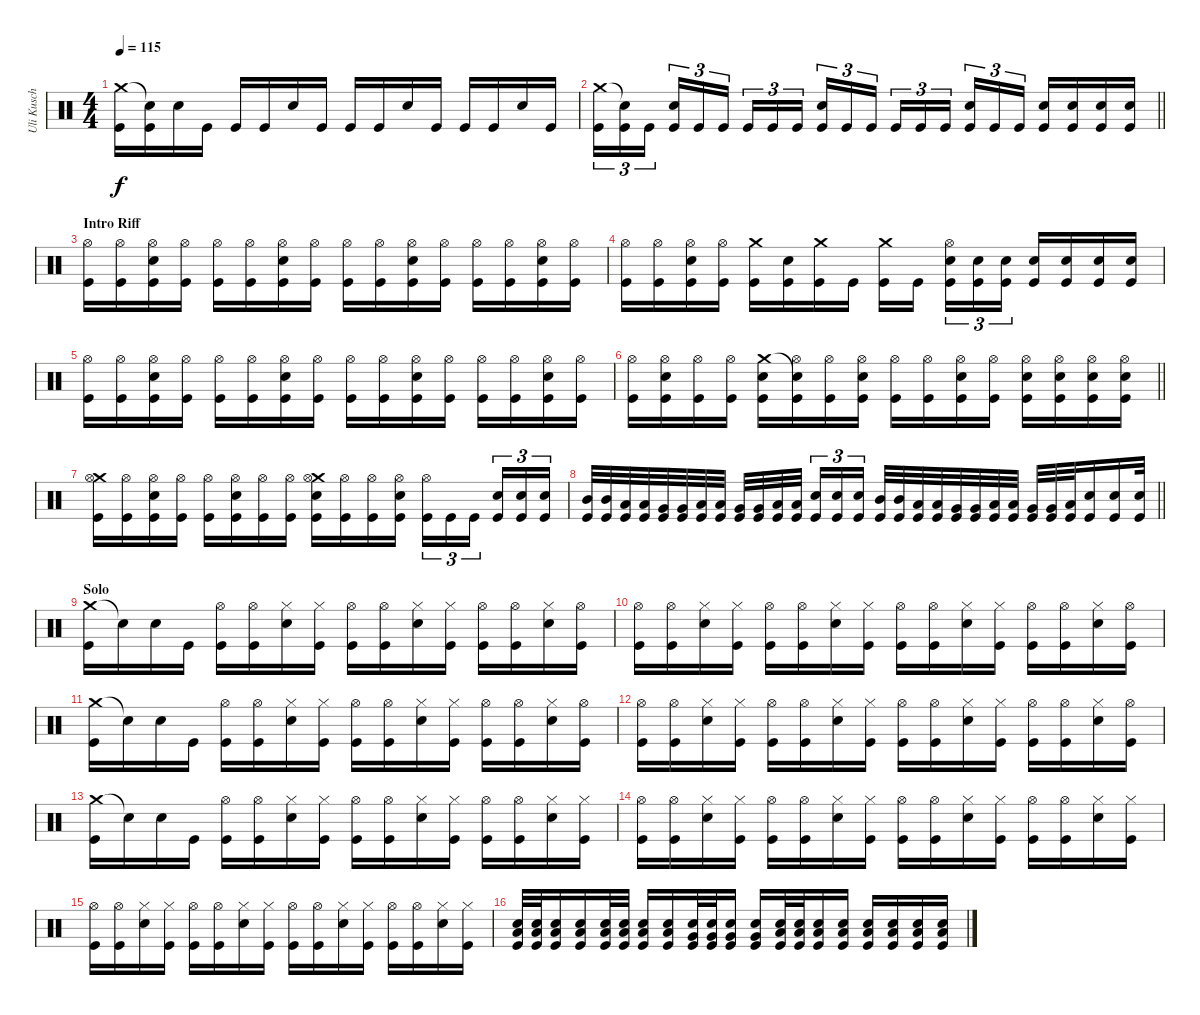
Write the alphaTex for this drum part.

\track ("Uli Kusch (Drums)" "Uli Kusch ") {instrument percussion}
\staff {score}
\articulation defaults
\ts (4 4)
\tempo 115
\clef neutral
\ks c
("Crash medium (hit)" "Kick (hit)").16{dy f} ("Snare (hit)"{t} "Kick (hit)").16 "Snare (hit) 2".16 "Kick (hit)".16 "Kick (hit)".16 "Kick (hit)".16 "Snare (hit) 2".16 "Kick (hit)".16 "Kick (hit)".16 "Kick (hit)".16 "Snare (hit) 2".16 "Kick (hit)".16 "Kick (hit)".16 "Kick (hit)".16 "Snare (hit) 2".16 "Kick (hit)".16 |
\barLineRight lightlight
("Crash medium (hit)" "Kick (hit)").16{tu (3 2)} ("Snare (hit)"{t} "Kick (hit)").16{tu (3 2)} "Kick (hit)".16{tu (3 2) beam splitsecondary} ("Snare (hit) 2" "Kick (hit)").16{tu (3 2)} "Kick (hit)".16{tu (3 2)} "Kick (hit)".16{tu (3 2)} "Kick (hit)".16{tu (3 2)} "Kick (hit)".16{tu (3 2)} "Kick (hit)".16{tu (3 2) beam splitsecondary} ("Snare (hit) 2" "Kick (hit)").16{tu (3 2)} "Kick (hit)".16{tu (3 2)} "Kick (hit)".16{tu (3 2)} "Kick (hit)".16{tu (3 2)} "Kick (hit)".16{tu (3 2)} "Kick (hit)".16{tu (3 2) beam splitsecondary} ("Snare (hit) 2" "Kick (hit)").16{tu (3 2)} "Kick (hit)".16{tu (3 2)} "Kick (hit)".16{tu (3 2)} ("Snare (hit) 2" "Kick (hit)").16 ("Snare (hit) 2" "Kick (hit)").16 ("Snare (hit) 2" "Kick (hit)").16 ("Snare (hit) 2" "Kick (hit)").16 |
\section ("" "Intro Riff")
("Hi-Hat (open)" "Kick (hit)").16 ("Hi-Hat (open)" "Kick (hit)").16 ("Hi-Hat (open)" "Snare (hit) 2" "Kick (hit)").16 ("Hi-Hat (open)" "Kick (hit)").16 ("Hi-Hat (open)" "Kick (hit)").16 ("Hi-Hat (open)" "Kick (hit)").16 ("Hi-Hat (open)" "Snare (hit) 2" "Kick (hit)").16 ("Hi-Hat (open)" "Kick (hit)").16 ("Hi-Hat (open)" "Kick (hit)").16 ("Hi-Hat (open)" "Kick (hit)").16 ("Hi-Hat (open)" "Snare (hit) 2" "Kick (hit)").16 ("Hi-Hat (open)" "Kick (hit)").16 ("Hi-Hat (open)" "Kick (hit)").16 ("Hi-Hat (open)" "Kick (hit)").16 ("Hi-Hat (open)" "Snare (hit) 2" "Kick (hit)").16 ("Hi-Hat (open)" "Kick (hit)").16 |
("Hi-Hat (open)" "Kick (hit)").16 ("Hi-Hat (open)" "Kick (hit)").16 ("Hi-Hat (open)" "Snare (hit) 2" "Kick (hit)").16 ("Hi-Hat (open)" "Kick (hit)").16 ("Crash medium (hit)" "Kick (hit)").16 ("Snare (hit) 2" "Kick (hit)").16 ("Crash medium (hit)" "Kick (hit)").16 "Kick (hit)".16 ("Crash medium (hit)" "Kick (hit)").16 "Kick (hit)".16{beam splitsecondary} ("Hi-Hat (open)" "Snare (hit) 2" "Kick (hit)").16{tu (3 2)} ("Snare (hit) 2" "Kick (hit)").16{tu (3 2)} ("Snare (hit) 2" "Kick (hit)").16{tu (3 2)} ("Snare (hit) 2" "Kick (hit)").16 ("Snare (hit) 2" "Kick (hit)").16 ("Snare (hit) 2" "Kick (hit)").16 ("Snare (hit) 2" "Kick (hit)").16 |
("Hi-Hat (open)" "Kick (hit)").16 ("Hi-Hat (open)" "Kick (hit)").16 ("Hi-Hat (open)" "Snare (hit) 2" "Kick (hit)").16 ("Hi-Hat (open)" "Kick (hit)").16 ("Hi-Hat (open)" "Kick (hit)").16 ("Hi-Hat (open)" "Kick (hit)").16 ("Hi-Hat (open)" "Snare (hit) 2" "Kick (hit)").16 ("Hi-Hat (open)" "Kick (hit)").16 ("Hi-Hat (open)" "Kick (hit)").16 ("Hi-Hat (open)" "Kick (hit)").16 ("Hi-Hat (open)" "Snare (hit) 2" "Kick (hit)").16 ("Hi-Hat (open)" "Kick (hit)").16 ("Hi-Hat (open)" "Kick (hit)").16 ("Hi-Hat (open)" "Kick (hit)").16 ("Hi-Hat (open)" "Snare (hit) 2" "Kick (hit)").16 ("Hi-Hat (open)" "Kick (hit)").16 |
\barLineRight lightlight
("Hi-Hat (open)" "Kick (hit)").16 ("Hi-Hat (open)" "Snare (hit) 2" "Kick (hit)").16 ("Hi-Hat (open)" "Kick (hit)").16 ("Hi-Hat (open)" "Kick (hit)").16 ("Crash medium (hit)" "Snare (hit) 2" "Kick (hit)").16 ("Snare (hit)"{t} "Hi-Hat (open)" "Kick (hit)").16 ("Hi-Hat (open)" "Kick (hit)").16 ("Hi-Hat (open)" "Snare (hit) 2" "Kick (hit)").16 ("Hi-Hat (open)" "Kick (hit)").16 ("Hi-Hat (open)" "Kick (hit)").16 ("Hi-Hat (open)" "Snare (hit) 2" "Kick (hit)").16 ("Hi-Hat (open)" "Kick (hit)").16 ("Hi-Hat (open)" "Snare (hit) 2" "Kick (hit)").16 ("Hi-Hat (open)" "Snare (hit) 2" "Kick (hit)").16 ("Hi-Hat (open)" "Snare (hit) 2" "Kick (hit)").16 ("Hi-Hat (open)" "Snare (hit) 2" "Kick (hit)").16 |
("Crash medium (hit)" "Hi-Hat (open)" "Kick (hit)").16 ("Hi-Hat (open)" "Kick (hit)").16 ("Hi-Hat (open)" "Snare (hit) 2" "Kick (hit)").16 ("Hi-Hat (open)" "Kick (hit)").16 ("Hi-Hat (open)" "Kick (hit)").16 ("Hi-Hat (open)" "Snare (hit) 2" "Kick (hit)").16 ("Hi-Hat (open)" "Kick (hit)").16 ("Hi-Hat (open)" "Kick (hit)").16 ("Crash medium (hit)" "Hi-Hat (open)" "Snare (hit) 2" "Kick (hit)").16 ("Hi-Hat (open)" "Kick (hit)").16 ("Hi-Hat (open)" "Kick (hit)").16 ("Hi-Hat (open)" "Snare (hit) 2" "Kick (hit)").16 ("Hi-Hat (open)" "Kick (hit)").16{tu (3 2)} "Kick (hit)".16{tu (3 2)} "Kick (hit)".16{tu (3 2) beam splitsecondary} ("Snare (hit) 2" "Kick (hit)").16{tu (3 2)} ("Snare (hit) 2" "Kick (hit)").16{tu (3 2)} ("Snare (hit) 2" "Kick (hit)").16{tu (3 2)} |
\barLineRight lightlight
("Mid Tom (hit)" "Kick (hit)").32 ("Mid Tom (hit)" "Kick (hit)").32 ("Low Tom (hit)" "Kick (hit)").32 ("Low Tom (hit)" "Kick (hit)").32 ("Very Low Tom (hit)" "Kick (hit)").32 ("Very Low Tom (hit)" "Kick (hit)").32 ("Low Tom (hit)" "Kick (hit)").32 ("Low Tom (hit)" "Kick (hit)").32 ("Very Low Tom (hit)" "Kick (hit)").32 ("Very Low Tom (hit)" "Kick (hit)").32 ("Low Floor Tom (hit)" "Kick (hit)").32 ("Low Floor Tom (hit)" "Kick (hit)").32{beam splitsecondary} ("Snare (hit) 2" "Kick (hit)").16{tu (3 2)} ("Snare (hit) 2" "Kick (hit)").16{tu (3 2)} ("Snare (hit) 2" "Kick (hit)").16{tu (3 2)} ("Mid Tom (hit)" "Kick (hit)").32 ("Mid Tom (hit)" "Kick (hit)").32 ("Low Tom (hit)" "Kick (hit)").32 ("Low Tom (hit)" "Kick (hit)").32 ("Very Low Tom (hit)" "Kick (hit)").32 ("Very Low Tom (hit)" "Kick (hit)").32 ("Low Tom (hit)" "Kick (hit)").32 ("Low Tom (hit)" "Kick (hit)").32 ("Very Low Tom (hit)" "Kick (hit)").32 ("Very Low Tom (hit)" "Kick (hit)").32 ("Low Floor Tom (hit)" "Kick (hit)").32 ("Snare (hit) 2" "Kick (hit)").16 ("Snare (hit) 2" "Kick (hit)").16 ("Snare (hit) 2" "Kick (hit)").32 |
\section ("" "Solo")
("Crash medium (hit)" "Kick (hit)").16 "Snare (hit)"{t}.16 "Snare (hit) 2".16 "Kick (hit)".16 ("Hi-Hat (open)" "Kick (hit)").16 ("Hi-Hat (open)" "Kick (hit)").16 ("Hi-Hat (closed)" "Snare (hit) 2").16 ("Hi-Hat (closed)" "Kick (hit)").16 ("Hi-Hat (open)" "Kick (hit)").16 ("Hi-Hat (open)" "Kick (hit)").16 ("Hi-Hat (closed)" "Snare (hit) 2").16 ("Hi-Hat (closed)" "Kick (hit)").16 ("Hi-Hat (open)" "Kick (hit)").16 ("Hi-Hat (open)" "Kick (hit)").16 ("Hi-Hat (closed)" "Snare (hit) 2").16 ("Hi-Hat (open)" "Kick (hit)").16 |
("Hi-Hat (open)" "Kick (hit)").16 ("Hi-Hat (open)" "Kick (hit)").16 ("Hi-Hat (closed)" "Snare (hit) 2").16 ("Hi-Hat (closed)" "Kick (hit)").16 ("Hi-Hat (open)" "Kick (hit)").16 ("Hi-Hat (open)" "Kick (hit)").16 ("Hi-Hat (closed)" "Snare (hit) 2").16 ("Hi-Hat (closed)" "Kick (hit)").16 ("Hi-Hat (open)" "Kick (hit)").16 ("Hi-Hat (open)" "Kick (hit)").16 ("Hi-Hat (closed)" "Snare (hit) 2").16 ("Hi-Hat (closed)" "Kick (hit)").16 ("Hi-Hat (open)" "Kick (hit)").16 ("Hi-Hat (open)" "Kick (hit)").16 ("Hi-Hat (closed)" "Snare (hit) 2").16 ("Hi-Hat (open)" "Kick (hit)").16 |
("Crash medium (hit)" "Kick (hit)").16 "Snare (hit)"{t}.16 "Snare (hit) 2".16 "Kick (hit)".16 ("Hi-Hat (open)" "Kick (hit)").16 ("Hi-Hat (open)" "Kick (hit)").16 ("Hi-Hat (closed)" "Snare (hit) 2").16 ("Hi-Hat (closed)" "Kick (hit)").16 ("Hi-Hat (open)" "Kick (hit)").16 ("Hi-Hat (open)" "Kick (hit)").16 ("Hi-Hat (closed)" "Snare (hit) 2").16 ("Hi-Hat (closed)" "Kick (hit)").16 ("Hi-Hat (open)" "Kick (hit)").16 ("Hi-Hat (open)" "Kick (hit)").16 ("Hi-Hat (closed)" "Snare (hit) 2").16 ("Hi-Hat (open)" "Kick (hit)").16 |
("Hi-Hat (open)" "Kick (hit)").16 ("Hi-Hat (open)" "Kick (hit)").16 ("Hi-Hat (closed)" "Snare (hit) 2").16 ("Hi-Hat (closed)" "Kick (hit)").16 ("Hi-Hat (open)" "Kick (hit)").16 ("Hi-Hat (open)" "Kick (hit)").16 ("Hi-Hat (closed)" "Snare (hit) 2").16 ("Hi-Hat (closed)" "Kick (hit)").16 ("Hi-Hat (open)" "Kick (hit)").16 ("Hi-Hat (open)" "Kick (hit)").16 ("Hi-Hat (closed)" "Snare (hit) 2").16 ("Hi-Hat (closed)" "Kick (hit)").16 ("Hi-Hat (open)" "Kick (hit)").16 ("Hi-Hat (open)" "Kick (hit)").16 ("Hi-Hat (closed)" "Snare (hit) 2").16 ("Hi-Hat (open)" "Kick (hit)").16 |
("Crash medium (hit)" "Kick (hit)").16 "Snare (hit)"{t}.16 "Snare (hit) 2".16 "Kick (hit)".16 ("Hi-Hat (open)" "Kick (hit)").16 ("Hi-Hat (open)" "Kick (hit)").16 ("Hi-Hat (closed)" "Snare (hit) 2").16 ("Hi-Hat (closed)" "Kick (hit)").16 ("Hi-Hat (open)" "Kick (hit)").16 ("Hi-Hat (open)" "Kick (hit)").16 ("Hi-Hat (closed)" "Snare (hit) 2").16 ("Hi-Hat (closed)" "Kick (hit)").16 ("Hi-Hat (open)" "Kick (hit)").16 ("Hi-Hat (open)" "Kick (hit)").16 ("Hi-Hat (closed)" "Snare (hit) 2").16 ("Hi-Hat (closed)" "Kick (hit)").16 |
("Hi-Hat (open)" "Kick (hit)").16 ("Hi-Hat (open)" "Kick (hit)").16 ("Hi-Hat (closed)" "Snare (hit) 2").16 ("Hi-Hat (closed)" "Kick (hit)").16 ("Hi-Hat (open)" "Kick (hit)").16 ("Hi-Hat (open)" "Kick (hit)").16 ("Hi-Hat (closed)" "Snare (hit) 2").16 ("Hi-Hat (closed)" "Kick (hit)").16 ("Hi-Hat (open)" "Kick (hit)").16 ("Hi-Hat (open)" "Kick (hit)").16 ("Hi-Hat (closed)" "Snare (hit) 2").16 ("Hi-Hat (closed)" "Kick (hit)").16 ("Hi-Hat (open)" "Kick (hit)").16 ("Hi-Hat (open)" "Kick (hit)").16 ("Hi-Hat (closed)" "Snare (hit) 2").16 ("Hi-Hat (closed)" "Kick (hit)").16 |
("Hi-Hat (open)" "Kick (hit)").16 ("Hi-Hat (open)" "Kick (hit)").16 ("Hi-Hat (closed)" "Snare (hit) 2").16 ("Hi-Hat (closed)" "Kick (hit)").16 ("Hi-Hat (open)" "Kick (hit)").16 ("Hi-Hat (open)" "Kick (hit)").16 ("Hi-Hat (closed)" "Snare (hit) 2").16 ("Hi-Hat (closed)" "Kick (hit)").16 ("Hi-Hat (open)" "Kick (hit)").16 ("Hi-Hat (open)" "Kick (hit)").16 ("Hi-Hat (closed)" "Snare (hit) 2").16 ("Hi-Hat (closed)" "Kick (hit)").16 ("Hi-Hat (open)" "Kick (hit)").16 ("Hi-Hat (open)" "Kick (hit)").16 ("Hi-Hat (closed)" "Snare (hit) 2").16 ("Hi-Hat (closed)" "Kick (hit)").16 |
("Low Tom (hit)" "Snare (hit) 2" "Kick (hit)").32 ("Low Tom (hit)" "Snare (hit) 2" "Kick (hit)").32 ("Low Tom (hit)" "Snare (hit) 2" "Kick (hit)").16 ("Low Tom (hit)" "Snare (hit) 2" "Kick (hit)").16 ("Low Tom (hit)" "Snare (hit) 2" "Kick (hit)").32 ("Low Tom (hit)" "Snare (hit) 2" "Kick (hit)").32 ("Low Tom (hit)" "Snare (hit) 2" "Kick (hit)").16 ("Low Tom (hit)" "Snare (hit) 2" "Kick (hit)").16 ("Very Low Tom (hit)" "Snare (hit) 2" "Kick (hit)").32 ("Very Low Tom (hit)" "Snare (hit) 2" "Kick (hit)").32 ("Very Low Tom (hit)" "Snare (hit) 2" "Kick (hit)").16 ("Very Low Tom (hit)" "Snare (hit) 2" "Kick (hit)").16 ("Low Tom (hit)" "Snare (hit) 2" "Kick (hit)").32 ("Low Tom (hit)" "Snare (hit) 2" "Kick (hit)").32 ("Low Tom (hit)" "Snare (hit) 2" "Kick (hit)").16 ("Low Tom (hit)" "Snare (hit) 2" "Kick (hit)").16 ("Low Tom (hit)" "Snare (hit) 2" "Kick (hit)").16 ("Low Tom (hit)" "Snare (hit) 2" "Kick (hit)").16 ("Low Tom (hit)" "Snare (hit) 2" "Kick (hit)").16 ("Low Tom (hit)" "Snare (hit) 2" "Kick (hit)").16
